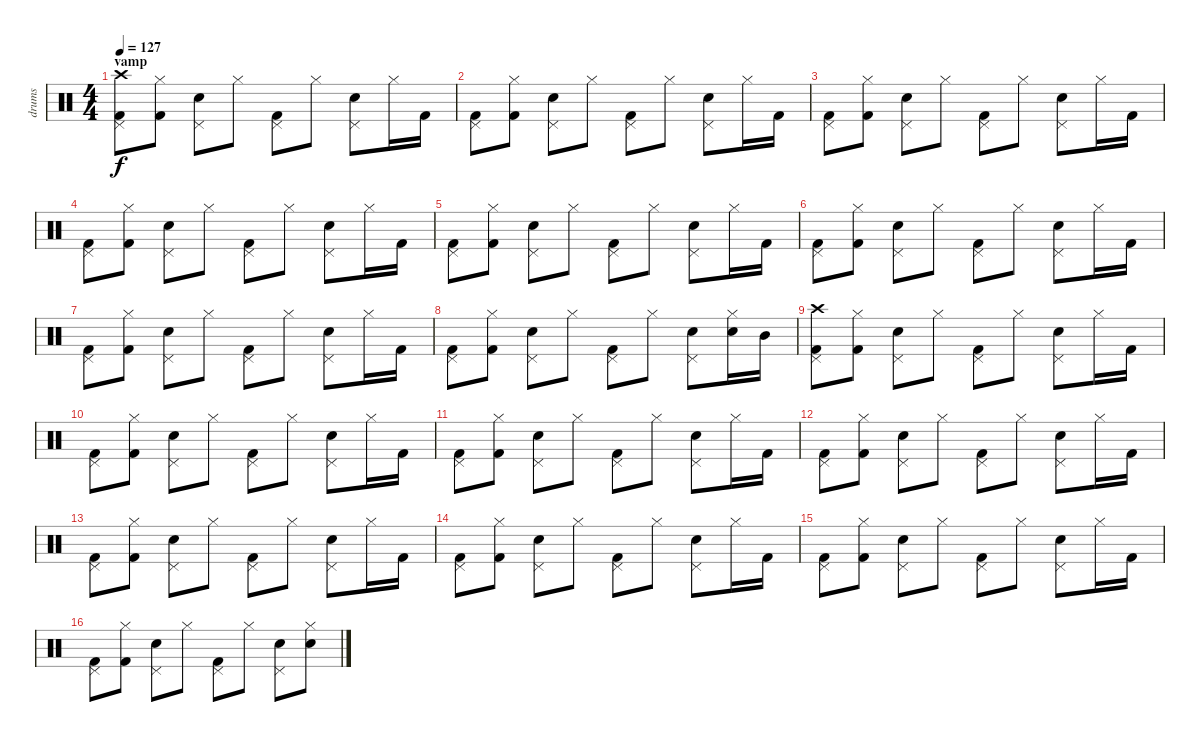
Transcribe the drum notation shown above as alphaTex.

\track ("drums" "drums") {instrument percussion}
\staff {score}
\articulation defaults
\ts (4 4)
\section ("" "vamp")
\tempo 127
\clef neutral
\ks c
("Kick (hit) 2" "Pedal Hi-Hat (hit)" "Crash high (hit)").8{dy f} ("Kick (hit) 2" "Hi-Hat (closed)").8 ("Electric Snare (hit)" "Pedal Hi-Hat (hit)").8 "Hi-Hat (closed)".8 ("Kick (hit) 2" "Pedal Hi-Hat (hit)").8 "Hi-Hat (closed)".8 ("Electric Snare (hit)" "Pedal Hi-Hat (hit)").8 "Hi-Hat (closed)".16 "Kick (hit) 2".16 |
("Kick (hit) 2" "Pedal Hi-Hat (hit)").8 ("Kick (hit) 2" "Hi-Hat (closed)").8 ("Electric Snare (hit)" "Pedal Hi-Hat (hit)").8 "Hi-Hat (closed)".8 ("Kick (hit) 2" "Pedal Hi-Hat (hit)").8 "Hi-Hat (closed)".8 ("Electric Snare (hit)" "Pedal Hi-Hat (hit)").8 "Hi-Hat (closed)".16 "Kick (hit) 2".16 |
("Kick (hit) 2" "Pedal Hi-Hat (hit)").8 ("Kick (hit) 2" "Hi-Hat (closed)").8 ("Electric Snare (hit)" "Pedal Hi-Hat (hit)").8 "Hi-Hat (closed)".8 ("Kick (hit) 2" "Pedal Hi-Hat (hit)").8 "Hi-Hat (closed)".8 ("Electric Snare (hit)" "Pedal Hi-Hat (hit)").8 "Hi-Hat (closed)".16 "Kick (hit) 2".16 |
("Kick (hit) 2" "Pedal Hi-Hat (hit)").8 ("Kick (hit) 2" "Hi-Hat (closed)").8 ("Electric Snare (hit)" "Pedal Hi-Hat (hit)").8 "Hi-Hat (closed)".8 ("Kick (hit) 2" "Pedal Hi-Hat (hit)").8 "Hi-Hat (closed)".8 ("Electric Snare (hit)" "Pedal Hi-Hat (hit)").8 "Hi-Hat (closed)".16 "Kick (hit) 2".16 |
("Kick (hit) 2" "Pedal Hi-Hat (hit)").8 ("Kick (hit) 2" "Hi-Hat (closed)").8 ("Electric Snare (hit)" "Pedal Hi-Hat (hit)").8 "Hi-Hat (closed)".8 ("Kick (hit) 2" "Pedal Hi-Hat (hit)").8 "Hi-Hat (closed)".8 ("Electric Snare (hit)" "Pedal Hi-Hat (hit)").8 "Hi-Hat (closed)".16 "Kick (hit) 2".16 |
("Kick (hit) 2" "Pedal Hi-Hat (hit)").8 ("Kick (hit) 2" "Hi-Hat (closed)").8 ("Electric Snare (hit)" "Pedal Hi-Hat (hit)").8 "Hi-Hat (closed)".8 ("Kick (hit) 2" "Pedal Hi-Hat (hit)").8 "Hi-Hat (closed)".8 ("Electric Snare (hit)" "Pedal Hi-Hat (hit)").8 "Hi-Hat (closed)".16 "Kick (hit) 2".16 |
("Kick (hit) 2" "Pedal Hi-Hat (hit)").8 ("Kick (hit) 2" "Hi-Hat (closed)").8 ("Electric Snare (hit)" "Pedal Hi-Hat (hit)").8 "Hi-Hat (closed)".8 ("Kick (hit) 2" "Pedal Hi-Hat (hit)").8 "Hi-Hat (closed)".8 ("Electric Snare (hit)" "Pedal Hi-Hat (hit)").8 "Hi-Hat (closed)".16 "Kick (hit) 2".16 |
("Kick (hit) 2" "Pedal Hi-Hat (hit)").8 ("Kick (hit) 2" "Hi-Hat (closed)").8 ("Electric Snare (hit)" "Pedal Hi-Hat (hit)").8 "Hi-Hat (closed)".8 ("Kick (hit) 2" "Pedal Hi-Hat (hit)").8 "Hi-Hat (closed)".8 ("Electric Snare (hit)" "Pedal Hi-Hat (hit)").8 ("Electric Snare (hit)" "Hi-Hat (closed)").16 "Mid Tom (hit)".16 |
("Kick (hit) 2" "Pedal Hi-Hat (hit)" "Crash high (hit)").8 ("Kick (hit) 2" "Hi-Hat (closed)").8 ("Electric Snare (hit)" "Pedal Hi-Hat (hit)").8 "Hi-Hat (closed)".8 ("Kick (hit) 2" "Pedal Hi-Hat (hit)").8 "Hi-Hat (closed)".8 ("Electric Snare (hit)" "Pedal Hi-Hat (hit)").8 "Hi-Hat (closed)".16 "Kick (hit) 2".16 |
("Kick (hit) 2" "Pedal Hi-Hat (hit)").8 ("Kick (hit) 2" "Hi-Hat (closed)").8 ("Electric Snare (hit)" "Pedal Hi-Hat (hit)").8 "Hi-Hat (closed)".8 ("Kick (hit) 2" "Pedal Hi-Hat (hit)").8 "Hi-Hat (closed)".8 ("Electric Snare (hit)" "Pedal Hi-Hat (hit)").8 "Hi-Hat (closed)".16 "Kick (hit) 2".16 |
("Kick (hit) 2" "Pedal Hi-Hat (hit)").8 ("Kick (hit) 2" "Hi-Hat (closed)").8 ("Electric Snare (hit)" "Pedal Hi-Hat (hit)").8 "Hi-Hat (closed)".8 ("Kick (hit) 2" "Pedal Hi-Hat (hit)").8 "Hi-Hat (closed)".8 ("Electric Snare (hit)" "Pedal Hi-Hat (hit)").8 "Hi-Hat (closed)".16 "Kick (hit) 2".16 |
("Kick (hit) 2" "Pedal Hi-Hat (hit)").8 ("Kick (hit) 2" "Hi-Hat (closed)").8 ("Electric Snare (hit)" "Pedal Hi-Hat (hit)").8 "Hi-Hat (closed)".8 ("Kick (hit) 2" "Pedal Hi-Hat (hit)").8 "Hi-Hat (closed)".8 ("Electric Snare (hit)" "Pedal Hi-Hat (hit)").8 "Hi-Hat (closed)".16 "Kick (hit) 2".16 |
("Kick (hit) 2" "Pedal Hi-Hat (hit)").8 ("Kick (hit) 2" "Hi-Hat (closed)").8 ("Electric Snare (hit)" "Pedal Hi-Hat (hit)").8 "Hi-Hat (closed)".8 ("Kick (hit) 2" "Pedal Hi-Hat (hit)").8 "Hi-Hat (closed)".8 ("Electric Snare (hit)" "Pedal Hi-Hat (hit)").8 "Hi-Hat (closed)".16 "Kick (hit) 2".16 |
("Kick (hit) 2" "Pedal Hi-Hat (hit)").8 ("Kick (hit) 2" "Hi-Hat (closed)").8 ("Electric Snare (hit)" "Pedal Hi-Hat (hit)").8 "Hi-Hat (closed)".8 ("Kick (hit) 2" "Pedal Hi-Hat (hit)").8 "Hi-Hat (closed)".8 ("Electric Snare (hit)" "Pedal Hi-Hat (hit)").8 "Hi-Hat (closed)".16 "Kick (hit) 2".16 |
("Kick (hit) 2" "Pedal Hi-Hat (hit)").8 ("Kick (hit) 2" "Hi-Hat (closed)").8 ("Electric Snare (hit)" "Pedal Hi-Hat (hit)").8 "Hi-Hat (closed)".8 ("Kick (hit) 2" "Pedal Hi-Hat (hit)").8 "Hi-Hat (closed)".8 ("Electric Snare (hit)" "Pedal Hi-Hat (hit)").8 "Hi-Hat (closed)".16 "Kick (hit) 2".16 |
("Kick (hit) 2" "Pedal Hi-Hat (hit)").8 ("Kick (hit) 2" "Hi-Hat (closed)").8 ("Electric Snare (hit)" "Pedal Hi-Hat (hit)").8 "Hi-Hat (closed)".8 ("Kick (hit) 2" "Pedal Hi-Hat (hit)").8 "Hi-Hat (closed)".8 ("Electric Snare (hit)" "Pedal Hi-Hat (hit)").8 ("Electric Snare (hit)" "Hi-Hat (closed)").8
